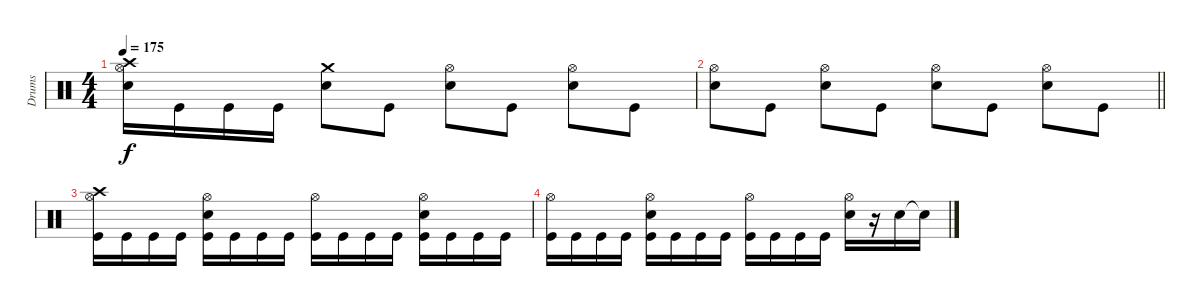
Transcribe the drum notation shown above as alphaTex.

\track ("Drums" "Drums") {instrument percussion}
\staff {score}
\articulation defaults
\ts (4 4)
\tempo 175
\clef neutral
\ks c
("Crash high (hit)" "Hi-Hat (open)" "Electric Snare (hit)").16{dy f} "Kick (hit)".16 "Kick (hit)".16 "Kick (hit)".16 ("Crash medium (hit)" "Electric Snare (hit)").8 "Kick (hit)".8 ("Hi-Hat (open)" "Electric Snare (hit)").8 "Kick (hit)".8 ("Hi-Hat (open)" "Electric Snare (hit)").8 "Kick (hit)".8 |
\barLineRight lightlight
("Hi-Hat (open)" "Electric Snare (hit)").8 "Kick (hit)".8 ("Hi-Hat (open)" "Electric Snare (hit)").8 "Kick (hit)".8 ("Hi-Hat (open)" "Electric Snare (hit)").8 "Kick (hit)".8 ("Hi-Hat (open)" "Electric Snare (hit)").8 "Kick (hit)".8 |
("Crash high (hit)" "Hi-Hat (open)" "Kick (hit)").16 "Kick (hit)".16 "Kick (hit)".16 "Kick (hit)".16 ("Hi-Hat (open)" "Electric Snare (hit)" "Kick (hit)").16 "Kick (hit)".16 "Kick (hit)".16 "Kick (hit)".16 ("Hi-Hat (open)" "Kick (hit)").16 "Kick (hit)".16 "Kick (hit)".16 "Kick (hit)".16 ("Hi-Hat (open)" "Electric Snare (hit)" "Kick (hit)").16 "Kick (hit)".16 "Kick (hit)".16 "Kick (hit)".16 |
("Hi-Hat (open)" "Kick (hit)").16 "Kick (hit)".16 "Kick (hit)".16 "Kick (hit)".16 ("Hi-Hat (open)" "Electric Snare (hit)" "Kick (hit)").16 "Kick (hit)".16 "Kick (hit)".16 "Kick (hit)".16 ("Hi-Hat (open)" "Kick (hit)").16 "Kick (hit)".16 "Kick (hit)".16 "Kick (hit)".16 ("Hi-Hat (open)" "Electric Snare (hit)").16 r.16 "Electric Snare (hit)".16 "Snare (hit)"{t}.16
